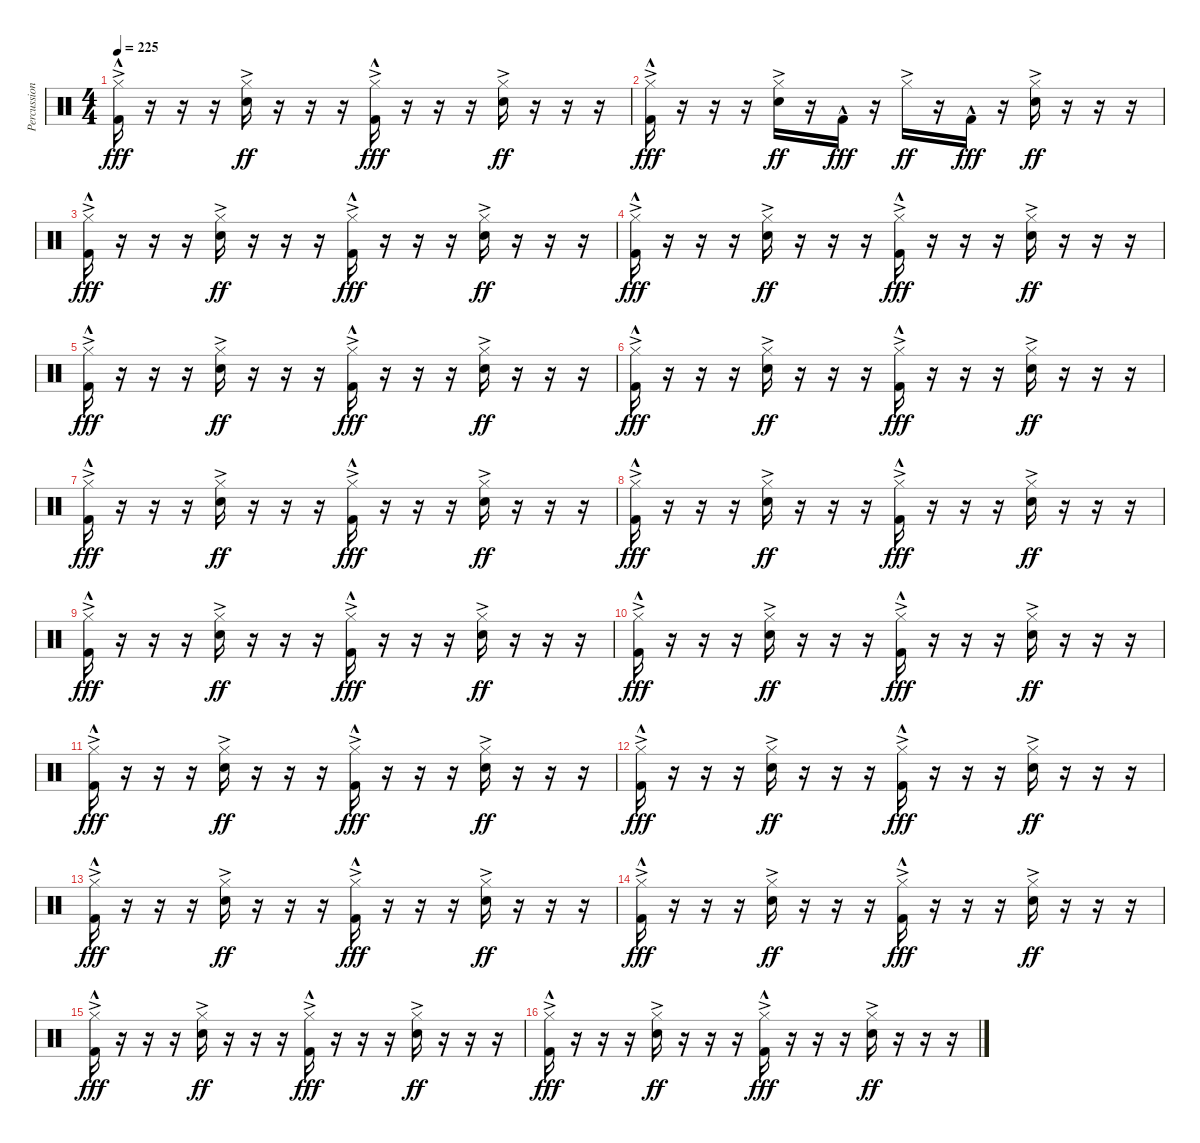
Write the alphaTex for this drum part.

\track ("Percussion" "Percussion") {instrument percussion bank 2}
\staff {score}
\articulation defaults
\ts (4 4)
\tempo 225
\clef neutral
\ks c
("Hi-Hat (closed)"{ac} "Kick (hit) 2"{hac}).16{dy fff} r.16 r.16 r.16 ("Hi-Hat (closed)"{ac} "Snare (hit) 2"{ac}).16{dy ff} r.16 r.16 r.16 ("Hi-Hat (closed)"{ac} "Kick (hit) 2"{hac}).16{dy fff} r.16 r.16 r.16 ("Hi-Hat (closed)"{ac} "Snare (hit) 2"{ac}).16{dy ff} r.16 r.16 r.16 |
("Hi-Hat (closed)"{ac} "Kick (hit) 2"{hac}).16{dy fff} r.16 r.16 r.16 ("Hi-Hat (closed)"{ac} "Snare (hit) 2"{ac}).16{dy ff} r.16 "Kick (hit) 2"{hac}.16{dy fff} r.16 "Hi-Hat (closed)"{ac}.16{dy ff} r.16 "Kick (hit) 2"{hac}.16{dy fff} r.16 ("Hi-Hat (closed)"{ac} "Snare (hit) 2"{ac}).16{dy ff} r.16 r.16 r.16 |
("Hi-Hat (closed)"{ac} "Kick (hit) 2"{hac}).16{dy fff} r.16 r.16 r.16 ("Hi-Hat (closed)"{ac} "Snare (hit) 2"{ac}).16{dy ff} r.16 r.16 r.16 ("Hi-Hat (closed)"{ac} "Kick (hit) 2"{hac}).16{dy fff} r.16 r.16 r.16 ("Hi-Hat (closed)"{ac} "Snare (hit) 2"{ac}).16{dy ff} r.16 r.16 r.16 |
("Hi-Hat (closed)"{ac} "Kick (hit) 2"{hac}).16{dy fff} r.16 r.16 r.16 ("Hi-Hat (closed)"{ac} "Snare (hit) 2"{ac}).16{dy ff} r.16 r.16 r.16 ("Hi-Hat (closed)"{ac} "Kick (hit) 2"{hac}).16{dy fff} r.16 r.16 r.16 ("Hi-Hat (closed)"{ac} "Snare (hit) 2"{ac}).16{dy ff} r.16 r.16 r.16 |
("Hi-Hat (closed)"{ac} "Kick (hit) 2"{hac}).16{dy fff} r.16 r.16 r.16 ("Hi-Hat (closed)"{ac} "Snare (hit) 2"{ac}).16{dy ff} r.16 r.16 r.16 ("Hi-Hat (closed)"{ac} "Kick (hit) 2"{hac}).16{dy fff} r.16 r.16 r.16 ("Hi-Hat (closed)"{ac} "Snare (hit) 2"{ac}).16{dy ff} r.16 r.16 r.16 |
("Hi-Hat (closed)"{ac} "Kick (hit) 2"{hac}).16{dy fff} r.16 r.16 r.16 ("Hi-Hat (closed)"{ac} "Snare (hit) 2"{ac}).16{dy ff} r.16 r.16 r.16 ("Hi-Hat (closed)"{ac} "Kick (hit) 2"{hac}).16{dy fff} r.16 r.16 r.16 ("Hi-Hat (closed)"{ac} "Snare (hit) 2"{ac}).16{dy ff} r.16 r.16 r.16 |
("Hi-Hat (closed)"{ac} "Kick (hit) 2"{hac}).16{dy fff} r.16 r.16 r.16 ("Hi-Hat (closed)"{ac} "Snare (hit) 2"{ac}).16{dy ff} r.16 r.16 r.16 ("Hi-Hat (closed)"{ac} "Kick (hit) 2"{hac}).16{dy fff} r.16 r.16 r.16 ("Hi-Hat (closed)"{ac} "Snare (hit) 2"{ac}).16{dy ff} r.16 r.16 r.16 |
("Hi-Hat (closed)"{ac} "Kick (hit) 2"{hac}).16{dy fff} r.16 r.16 r.16 ("Hi-Hat (closed)"{ac} "Snare (hit) 2"{ac}).16{dy ff} r.16 r.16 r.16 ("Hi-Hat (closed)"{ac} "Kick (hit) 2"{hac}).16{dy fff} r.16 r.16 r.16 ("Hi-Hat (closed)"{ac} "Snare (hit) 2"{ac}).16{dy ff} r.16 r.16 r.16 |
("Hi-Hat (closed)"{ac} "Kick (hit) 2"{hac}).16{dy fff} r.16 r.16 r.16 ("Hi-Hat (closed)"{ac} "Snare (hit) 2"{ac}).16{dy ff} r.16 r.16 r.16 ("Hi-Hat (closed)"{ac} "Kick (hit) 2"{hac}).16{dy fff} r.16 r.16 r.16 ("Hi-Hat (closed)"{ac} "Snare (hit) 2"{ac}).16{dy ff} r.16 r.16 r.16 |
("Hi-Hat (closed)"{ac} "Kick (hit) 2"{hac}).16{dy fff} r.16 r.16 r.16 ("Hi-Hat (closed)"{ac} "Snare (hit) 2"{ac}).16{dy ff} r.16 r.16 r.16 ("Hi-Hat (closed)"{ac} "Kick (hit) 2"{hac}).16{dy fff} r.16 r.16 r.16 ("Hi-Hat (closed)"{ac} "Snare (hit) 2"{ac}).16{dy ff} r.16 r.16 r.16 |
("Hi-Hat (closed)"{ac} "Kick (hit) 2"{hac}).16{dy fff} r.16 r.16 r.16 ("Hi-Hat (closed)"{ac} "Snare (hit) 2"{ac}).16{dy ff} r.16 r.16 r.16 ("Hi-Hat (closed)"{ac} "Kick (hit) 2"{hac}).16{dy fff} r.16 r.16 r.16 ("Hi-Hat (closed)"{ac} "Snare (hit) 2"{ac}).16{dy ff} r.16 r.16 r.16 |
("Hi-Hat (closed)"{ac} "Kick (hit) 2"{hac}).16{dy fff} r.16 r.16 r.16 ("Hi-Hat (closed)"{ac} "Snare (hit) 2"{ac}).16{dy ff} r.16 r.16 r.16 ("Hi-Hat (closed)"{ac} "Kick (hit) 2"{hac}).16{dy fff} r.16 r.16 r.16 ("Hi-Hat (closed)"{ac} "Snare (hit) 2"{ac}).16{dy ff} r.16 r.16 r.16 |
("Hi-Hat (closed)"{ac} "Kick (hit) 2"{hac}).16{dy fff} r.16 r.16 r.16 ("Hi-Hat (closed)"{ac} "Snare (hit) 2"{ac}).16{dy ff} r.16 r.16 r.16 ("Hi-Hat (closed)"{ac} "Kick (hit) 2"{hac}).16{dy fff} r.16 r.16 r.16 ("Hi-Hat (closed)"{ac} "Snare (hit) 2"{ac}).16{dy ff} r.16 r.16 r.16 |
("Hi-Hat (closed)"{ac} "Kick (hit) 2"{hac}).16{dy fff} r.16 r.16 r.16 ("Hi-Hat (closed)"{ac} "Snare (hit) 2"{ac}).16{dy ff} r.16 r.16 r.16 ("Hi-Hat (closed)"{ac} "Kick (hit) 2"{hac}).16{dy fff} r.16 r.16 r.16 ("Hi-Hat (closed)"{ac} "Snare (hit) 2"{ac}).16{dy ff} r.16 r.16 r.16 |
("Hi-Hat (closed)"{ac} "Kick (hit) 2"{hac}).16{dy fff} r.16 r.16 r.16 ("Hi-Hat (closed)"{ac} "Snare (hit) 2"{ac}).16{dy ff} r.16 r.16 r.16 ("Hi-Hat (closed)"{ac} "Kick (hit) 2"{hac}).16{dy fff} r.16 r.16 r.16 ("Hi-Hat (closed)"{ac} "Snare (hit) 2"{ac}).16{dy ff} r.16 r.16 r.16 |
("Hi-Hat (closed)"{ac} "Kick (hit) 2"{hac}).16{dy fff} r.16 r.16 r.16 ("Hi-Hat (closed)"{ac} "Snare (hit) 2"{ac}).16{dy ff} r.16 r.16 r.16 ("Hi-Hat (closed)"{ac} "Kick (hit) 2"{hac}).16{dy fff} r.16 r.16 r.16 ("Hi-Hat (closed)"{ac} "Snare (hit) 2"{ac}).16{dy ff} r.16 r.16 r.16
